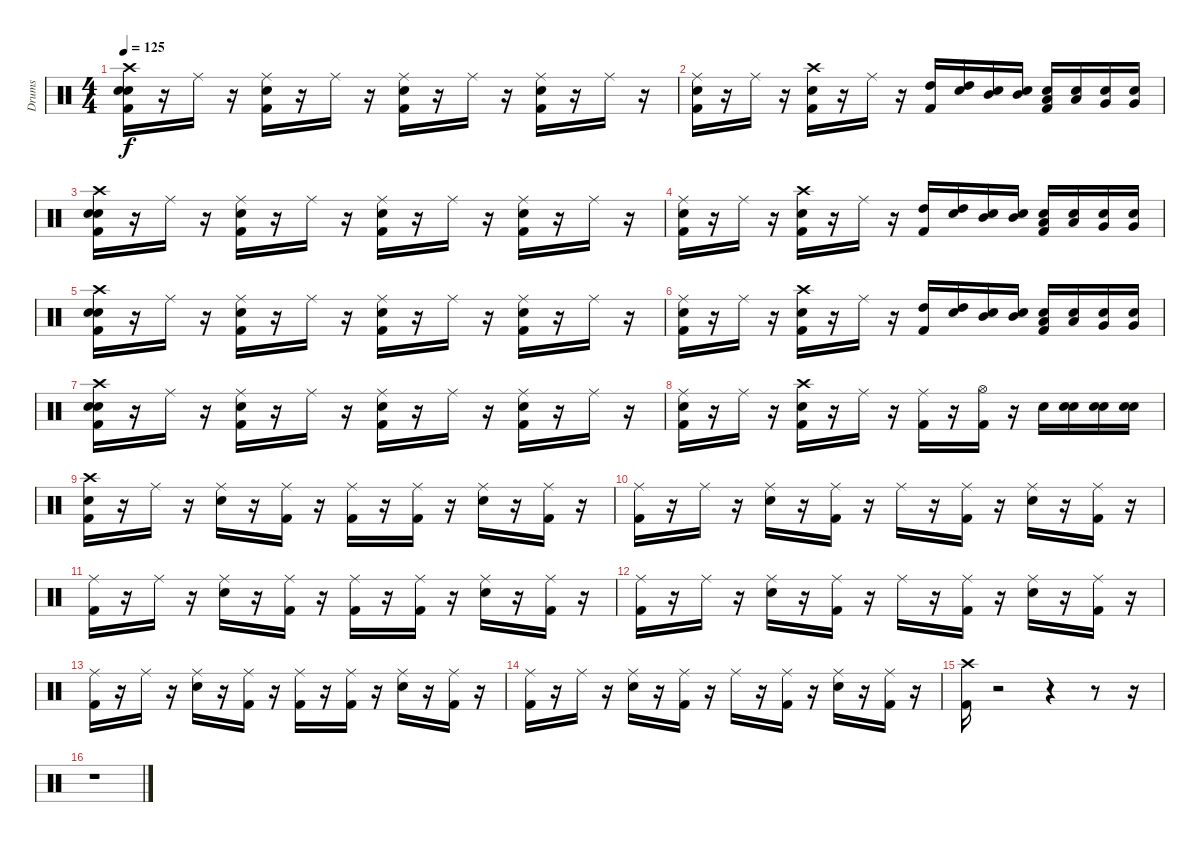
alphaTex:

\track ("Drums" "Drums") {instrument percussion}
\staff {score}
\articulation defaults
\ts (4 4)
\tempo 125
\clef neutral
\ks c
("Snare (hit)" "Snare (hit) 2" "Kick (hit) 2" "Crash high (hit)").16{dy f} r.16 "Ride (middle)".16 r.16 ("Ride (middle)" "Snare (hit) 2" "Kick (hit) 2").16 r.16 "Ride (middle)".16 r.16 ("Ride (middle)" "Snare (hit) 2" "Kick (hit) 2").16 r.16 "Ride (middle)".16 r.16 ("Ride (middle)" "Snare (hit) 2" "Kick (hit) 2").16 r.16 "Ride (middle)".16 r.16 |
("Ride (middle)" "Snare (hit) 2" "Kick (hit) 2").16 r.16 "Ride (middle)".16 r.16 ("Snare (hit) 2" "Kick (hit) 2" "Crash high (hit)").16 r.16 "Ride (middle)".16 r.16 ("Kick (hit) 2" "High Tom (hit)").16 ("Snare (hit)" "High Tom (hit)").16 ("Snare (hit)" "Mid Tom (hit)").16 ("Snare (hit)" "Mid Tom (hit)").16 ("Snare (hit)" "Kick (hit) 2" "Low Tom (hit)").16 ("Snare (hit)" "Low Tom (hit)").16 ("Snare (hit)" "Very Low Tom (hit)").16 ("Snare (hit)" "Very Low Tom (hit)").16 |
("Snare (hit)" "Snare (hit) 2" "Kick (hit) 2" "Crash high (hit)").16 r.16 "Ride (middle)".16 r.16 ("Ride (middle)" "Snare (hit) 2" "Kick (hit) 2").16 r.16 "Ride (middle)".16 r.16 ("Ride (middle)" "Snare (hit) 2" "Kick (hit) 2").16 r.16 "Ride (middle)".16 r.16 ("Ride (middle)" "Snare (hit) 2" "Kick (hit) 2").16 r.16 "Ride (middle)".16 r.16 |
("Ride (middle)" "Snare (hit) 2" "Kick (hit) 2").16 r.16 "Ride (middle)".16 r.16 ("Snare (hit) 2" "Kick (hit) 2" "Crash high (hit)").16 r.16 "Ride (middle)".16 r.16 ("Kick (hit) 2" "High Tom (hit)").16 ("Snare (hit)" "High Tom (hit)").16 ("Snare (hit)" "Mid Tom (hit)").16 ("Snare (hit)" "Mid Tom (hit)").16 ("Snare (hit)" "Kick (hit) 2" "Low Tom (hit)").16 ("Snare (hit)" "Low Tom (hit)").16 ("Snare (hit)" "Very Low Tom (hit)").16 ("Snare (hit)" "Very Low Tom (hit)").16 |
("Snare (hit)" "Snare (hit) 2" "Kick (hit) 2" "Crash high (hit)").16 r.16 "Ride (middle)".16 r.16 ("Ride (middle)" "Snare (hit) 2" "Kick (hit) 2").16 r.16 "Ride (middle)".16 r.16 ("Ride (middle)" "Snare (hit) 2" "Kick (hit) 2").16 r.16 "Ride (middle)".16 r.16 ("Ride (middle)" "Snare (hit) 2" "Kick (hit) 2").16 r.16 "Ride (middle)".16 r.16 |
("Ride (middle)" "Snare (hit) 2" "Kick (hit) 2").16 r.16 "Ride (middle)".16 r.16 ("Snare (hit) 2" "Kick (hit) 2" "Crash high (hit)").16 r.16 "Ride (middle)".16 r.16 ("Kick (hit) 2" "High Tom (hit)").16 ("Snare (hit)" "High Tom (hit)").16 ("Snare (hit)" "Mid Tom (hit)").16 ("Snare (hit)" "Mid Tom (hit)").16 ("Snare (hit)" "Kick (hit) 2" "Low Tom (hit)").16 ("Snare (hit)" "Low Tom (hit)").16 ("Snare (hit)" "Very Low Tom (hit)").16 ("Snare (hit)" "Very Low Tom (hit)").16 |
("Snare (hit)" "Snare (hit) 2" "Kick (hit) 2" "Crash high (hit)").16 r.16 "Ride (middle)".16 r.16 ("Ride (middle)" "Snare (hit) 2" "Kick (hit) 2").16 r.16 "Ride (middle)".16 r.16 ("Ride (middle)" "Snare (hit) 2" "Kick (hit) 2").16 r.16 "Ride (middle)".16 r.16 ("Ride (middle)" "Snare (hit) 2" "Kick (hit) 2").16 r.16 "Ride (middle)".16 r.16 |
("Ride (middle)" "Snare (hit) 2" "Kick (hit) 2").16 r.16 "Ride (middle)".16 r.16 ("Snare (hit) 2" "Kick (hit) 2" "Crash high (hit)").16 r.16 "Ride (middle)".16 r.16 ("Kick (hit) 2" "Ride (middle)").16 r.16 ("Kick (hit) 2" "Hi-Hat (open)").16 r.16 "Snare (hit) 2".16 ("Snare (hit)" "Snare (hit) 2").16 ("Snare (hit)" "Snare (hit) 2").16 ("Snare (hit)" "Snare (hit) 2").16 |
("Snare (hit)" "Kick (hit) 2" "Crash high (hit)").16 r.16 "Ride (middle)".16 r.16 ("Ride (middle)" "Snare (hit) 2").16 r.16 ("Ride (middle)" "Kick (hit) 2").16 r.16 ("Ride (middle)" "Kick (hit) 2").16 r.16 ("Ride (middle)" "Kick (hit) 2").16 r.16 ("Ride (middle)" "Snare (hit) 2").16 r.16 ("Ride (middle)" "Kick (hit) 2").16 r.16 |
("Kick (hit) 2" "Ride (middle)").16 r.16 "Ride (middle)".16 r.16 ("Ride (middle)" "Snare (hit) 2").16 r.16 ("Ride (middle)" "Kick (hit) 2").16 r.16 "Ride (middle)".16 r.16 ("Ride (middle)" "Kick (hit) 2").16 r.16 ("Ride (middle)" "Snare (hit) 2").16 r.16 ("Ride (middle)" "Kick (hit) 2").16 r.16 |
("Kick (hit) 2" "Ride (middle)").16 r.16 "Ride (middle)".16 r.16 ("Ride (middle)" "Snare (hit) 2").16 r.16 ("Ride (middle)" "Kick (hit) 2").16 r.16 ("Ride (middle)" "Kick (hit) 2").16 r.16 ("Ride (middle)" "Kick (hit) 2").16 r.16 ("Ride (middle)" "Snare (hit) 2").16 r.16 ("Ride (middle)" "Kick (hit) 2").16 r.16 |
("Kick (hit) 2" "Ride (middle)").16 r.16 "Ride (middle)".16 r.16 ("Ride (middle)" "Snare (hit) 2").16 r.16 ("Ride (middle)" "Kick (hit) 2").16 r.16 "Ride (middle)".16 r.16 ("Ride (middle)" "Kick (hit) 2").16 r.16 ("Ride (middle)" "Snare (hit) 2").16 r.16 ("Ride (middle)" "Kick (hit) 2").16 r.16 |
("Kick (hit) 2" "Ride (middle)").16 r.16 "Ride (middle)".16 r.16 ("Ride (middle)" "Snare (hit) 2").16 r.16 ("Ride (middle)" "Kick (hit) 2").16 r.16 ("Ride (middle)" "Kick (hit) 2").16 r.16 ("Ride (middle)" "Kick (hit) 2").16 r.16 ("Ride (middle)" "Snare (hit) 2").16 r.16 ("Ride (middle)" "Kick (hit) 2").16 r.16 |
("Kick (hit) 2" "Ride (middle)").16 r.16 "Ride (middle)".16 r.16 ("Ride (middle)" "Snare (hit) 2").16 r.16 ("Ride (middle)" "Kick (hit) 2").16 r.16 "Ride (middle)".16 r.16 ("Ride (middle)" "Kick (hit) 2").16 r.16 ("Ride (middle)" "Snare (hit) 2").16 r.16 ("Ride (middle)" "Kick (hit) 2").16 r.16 |
("Kick (hit) 2" "Crash high (hit)").16 r.2 r.4 r.8 r.16 |
r.1
